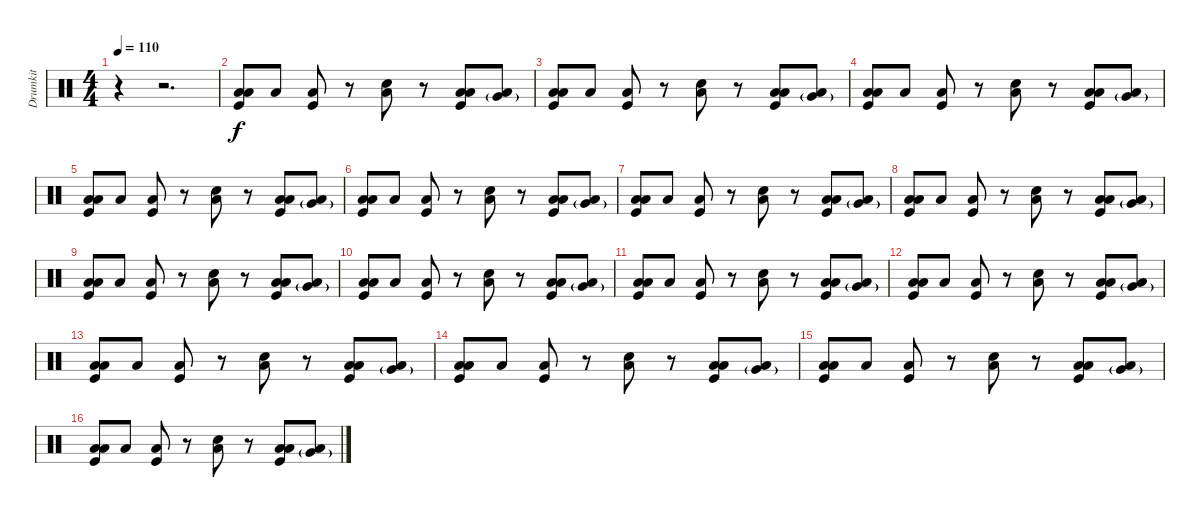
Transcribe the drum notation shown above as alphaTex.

\track ("Drumkit" "Drumkit") {instrument percussion}
\staff {score}
\articulation defaults
\ts (4 4)
\tempo 110
\clef neutral
\ks c
r.4{dy f} r.2{d} |
("Low Tom (hit)" "Low Floor Tom (hit)" "Kick (hit)").8 "Low Floor Tom (hit)".8 ("Low Tom (hit)" "Kick (hit)").8 r.8 ("Low Floor Tom (hit)" "Snare (hit) 2").8 r.8 ("Low Tom (hit)" "Low Floor Tom (hit)" "Kick (hit)").8 ("Very Low Tom (hit)"{g} "Low Floor Tom (hit)").8 |
("Low Tom (hit)" "Low Floor Tom (hit)" "Kick (hit)").8 "Low Floor Tom (hit)".8 ("Low Tom (hit)" "Kick (hit)").8 r.8 ("Low Floor Tom (hit)" "Snare (hit) 2").8 r.8 ("Low Tom (hit)" "Low Floor Tom (hit)" "Kick (hit)").8 ("Very Low Tom (hit)"{g} "Low Floor Tom (hit)").8 |
("Low Tom (hit)" "Low Floor Tom (hit)" "Kick (hit)").8 "Low Floor Tom (hit)".8 ("Low Tom (hit)" "Kick (hit)").8 r.8 ("Low Floor Tom (hit)" "Snare (hit) 2").8 r.8 ("Low Tom (hit)" "Low Floor Tom (hit)" "Kick (hit)").8 ("Very Low Tom (hit)"{g} "Low Floor Tom (hit)").8 |
("Low Tom (hit)" "Low Floor Tom (hit)" "Kick (hit)").8 "Low Floor Tom (hit)".8 ("Low Tom (hit)" "Kick (hit)").8 r.8 ("Low Floor Tom (hit)" "Snare (hit) 2").8 r.8 ("Low Tom (hit)" "Low Floor Tom (hit)" "Kick (hit)").8 ("Very Low Tom (hit)"{g} "Low Floor Tom (hit)").8 |
("Low Tom (hit)" "Low Floor Tom (hit)" "Kick (hit)").8 "Low Floor Tom (hit)".8 ("Low Tom (hit)" "Kick (hit)").8 r.8 ("Low Floor Tom (hit)" "Snare (hit) 2").8 r.8 ("Low Tom (hit)" "Low Floor Tom (hit)" "Kick (hit)").8 ("Very Low Tom (hit)"{g} "Low Floor Tom (hit)").8 |
("Low Tom (hit)" "Low Floor Tom (hit)" "Kick (hit)").8 "Low Floor Tom (hit)".8 ("Low Tom (hit)" "Kick (hit)").8 r.8 ("Low Floor Tom (hit)" "Snare (hit) 2").8 r.8 ("Low Tom (hit)" "Low Floor Tom (hit)" "Kick (hit)").8 ("Very Low Tom (hit)"{g} "Low Floor Tom (hit)").8 |
("Low Tom (hit)" "Low Floor Tom (hit)" "Kick (hit)").8 "Low Floor Tom (hit)".8 ("Low Tom (hit)" "Kick (hit)").8 r.8 ("Low Floor Tom (hit)" "Snare (hit) 2").8 r.8 ("Low Tom (hit)" "Low Floor Tom (hit)" "Kick (hit)").8 ("Very Low Tom (hit)"{g} "Low Floor Tom (hit)").8 |
("Low Tom (hit)" "Low Floor Tom (hit)" "Kick (hit)").8 "Low Floor Tom (hit)".8 ("Low Tom (hit)" "Kick (hit)").8 r.8 ("Low Floor Tom (hit)" "Snare (hit) 2").8 r.8 ("Low Tom (hit)" "Low Floor Tom (hit)" "Kick (hit)").8 ("Very Low Tom (hit)"{g} "Low Floor Tom (hit)").8 |
("Low Tom (hit)" "Low Floor Tom (hit)" "Kick (hit)").8 "Low Floor Tom (hit)".8 ("Low Tom (hit)" "Kick (hit)").8 r.8 ("Low Floor Tom (hit)" "Snare (hit) 2").8 r.8 ("Low Tom (hit)" "Low Floor Tom (hit)" "Kick (hit)").8 ("Very Low Tom (hit)"{g} "Low Floor Tom (hit)").8 |
("Low Tom (hit)" "Low Floor Tom (hit)" "Kick (hit)").8 "Low Floor Tom (hit)".8 ("Low Tom (hit)" "Kick (hit)").8 r.8 ("Low Floor Tom (hit)" "Snare (hit) 2").8 r.8 ("Low Tom (hit)" "Low Floor Tom (hit)" "Kick (hit)").8 ("Very Low Tom (hit)"{g} "Low Floor Tom (hit)").8 |
("Low Tom (hit)" "Low Floor Tom (hit)" "Kick (hit)").8 "Low Floor Tom (hit)".8 ("Low Tom (hit)" "Kick (hit)").8 r.8 ("Low Floor Tom (hit)" "Snare (hit) 2").8 r.8 ("Low Tom (hit)" "Low Floor Tom (hit)" "Kick (hit)").8 ("Very Low Tom (hit)"{g} "Low Floor Tom (hit)").8 |
("Low Tom (hit)" "Low Floor Tom (hit)" "Kick (hit)").8 "Low Floor Tom (hit)".8 ("Low Tom (hit)" "Kick (hit)").8 r.8 ("Low Floor Tom (hit)" "Snare (hit) 2").8 r.8 ("Low Tom (hit)" "Low Floor Tom (hit)" "Kick (hit)").8 ("Very Low Tom (hit)"{g} "Low Floor Tom (hit)").8 |
("Low Tom (hit)" "Low Floor Tom (hit)" "Kick (hit)").8 "Low Floor Tom (hit)".8 ("Low Tom (hit)" "Kick (hit)").8 r.8 ("Low Floor Tom (hit)" "Snare (hit) 2").8 r.8 ("Low Tom (hit)" "Low Floor Tom (hit)" "Kick (hit)").8 ("Very Low Tom (hit)"{g} "Low Floor Tom (hit)").8 |
("Low Tom (hit)" "Low Floor Tom (hit)" "Kick (hit)").8 "Low Floor Tom (hit)".8 ("Low Tom (hit)" "Kick (hit)").8 r.8 ("Low Floor Tom (hit)" "Snare (hit) 2").8 r.8 ("Low Tom (hit)" "Low Floor Tom (hit)" "Kick (hit)").8 ("Very Low Tom (hit)"{g} "Low Floor Tom (hit)").8 |
("Low Tom (hit)" "Low Floor Tom (hit)" "Kick (hit)").8 "Low Floor Tom (hit)".8 ("Low Tom (hit)" "Kick (hit)").8 r.8 ("Low Floor Tom (hit)" "Snare (hit) 2").8 r.8 ("Low Tom (hit)" "Low Floor Tom (hit)" "Kick (hit)").8 ("Very Low Tom (hit)"{g} "Low Floor Tom (hit)").8
